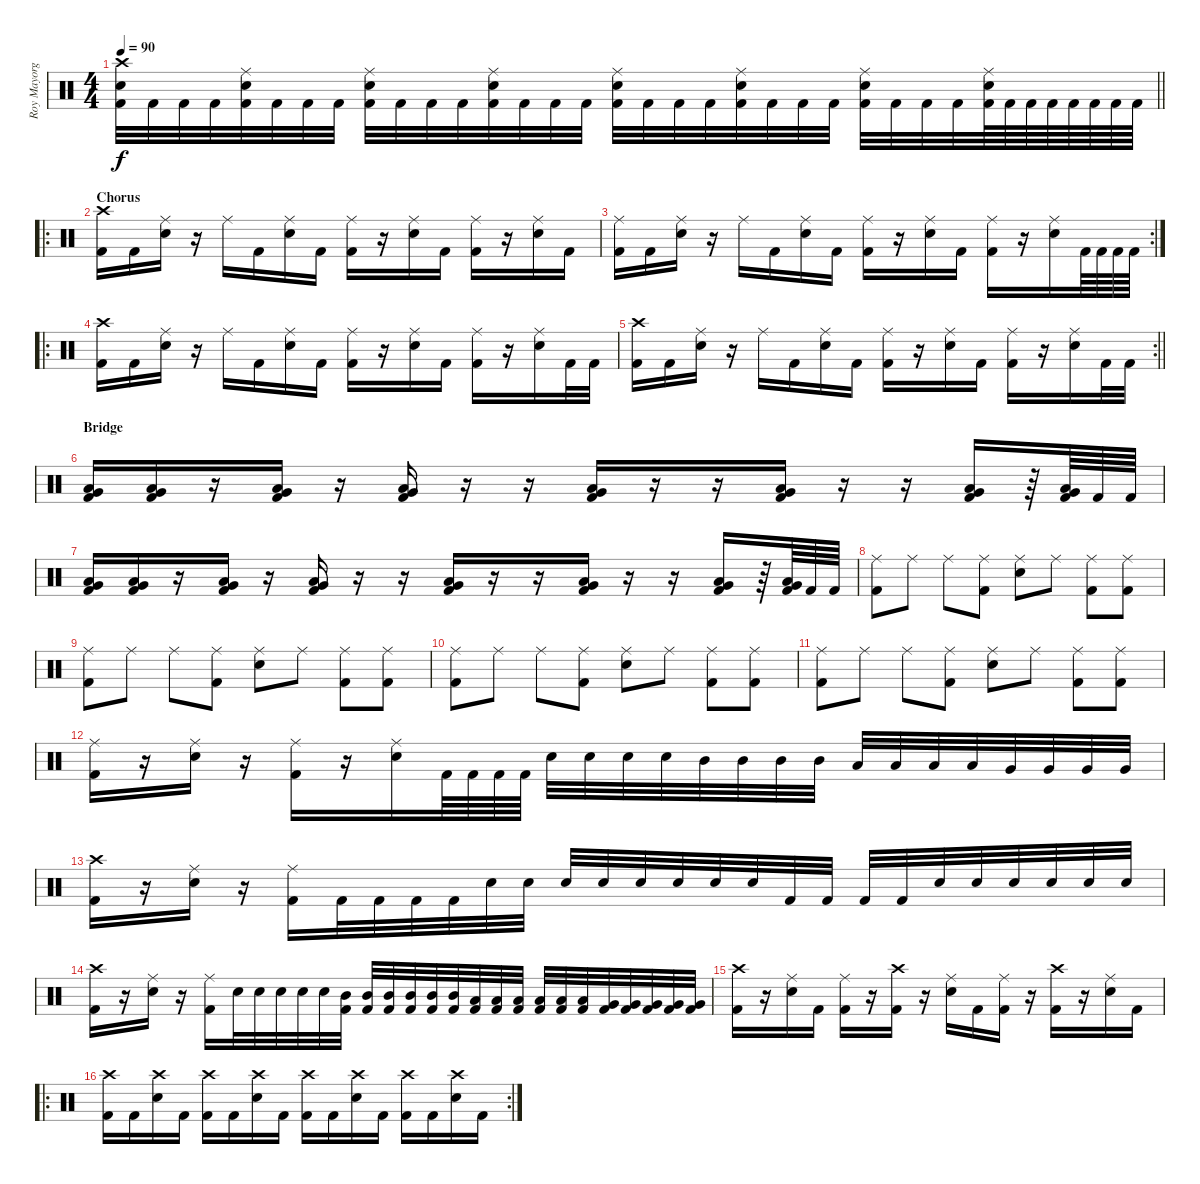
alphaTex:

\track ("Roy Mayorga" "Roy Mayorg") {instrument percussion}
\staff {score}
\articulation defaults
\ts (4 4)
\tempo 90
\clef neutral
\barLineRight lightlight
\ks c
("Kick (hit) 2" "Electric Snare (hit)" "Crash high (hit)").32{dy f} "Kick (hit) 2".32 "Kick (hit) 2".32 "Kick (hit) 2".32 ("Kick (hit) 2" "Electric Snare (hit)" "Ride (middle)").32 "Kick (hit) 2".32 "Kick (hit) 2".32 "Kick (hit) 2".32 ("Kick (hit) 2" "Electric Snare (hit)" "Ride (middle)").32 "Kick (hit) 2".32 "Kick (hit) 2".32 "Kick (hit) 2".32 ("Kick (hit) 2" "Electric Snare (hit)" "Ride (middle)").32 "Kick (hit) 2".32 "Kick (hit) 2".32 "Kick (hit) 2".32 ("Kick (hit) 2" "Electric Snare (hit)" "Ride (middle)").32 "Kick (hit) 2".32 "Kick (hit) 2".32 "Kick (hit) 2".32 ("Kick (hit) 2" "Electric Snare (hit)" "Ride (middle)").32 "Kick (hit) 2".32 "Kick (hit) 2".32 "Kick (hit) 2".32 ("Kick (hit) 2" "Electric Snare (hit)" "Ride (middle)").32 "Kick (hit) 2".32 "Kick (hit) 2".32 "Kick (hit) 2".32 ("Kick (hit) 2" "Electric Snare (hit)" "Ride (middle)").64 "Kick (hit) 2".64 "Kick (hit) 2".64 "Kick (hit) 2".64 "Kick (hit) 2".64 "Kick (hit) 2".64 "Kick (hit) 2".64 "Kick (hit) 2".64 |
\ro
\section ("" "Chorus")
("Kick (hit) 2" "Crash high (hit)").16 "Kick (hit) 2".16 ("Electric Snare (hit)" "Ride (middle)").16 r.16 "Ride (middle)".16 "Kick (hit) 2".16 ("Electric Snare (hit)" "Ride (middle)").16 "Kick (hit) 2".16 ("Kick (hit) 2" "Ride (middle)").16 r.16 ("Electric Snare (hit)" "Ride (middle)").16 "Kick (hit) 2".16 ("Kick (hit) 2" "Ride (middle)").16 r.16 ("Electric Snare (hit)" "Ride (middle)").16 "Kick (hit) 2".16 |
\rc 2
("Kick (hit) 2" "Ride (middle)").16 "Kick (hit) 2".16 ("Electric Snare (hit)" "Ride (middle)").16 r.16 "Ride (middle)".16 "Kick (hit) 2".16 ("Electric Snare (hit)" "Ride (middle)").16 "Kick (hit) 2".16 ("Kick (hit) 2" "Ride (middle)").16 r.16 ("Electric Snare (hit)" "Ride (middle)").16 "Kick (hit) 2".16 ("Kick (hit) 2" "Ride (middle)").16 r.16 ("Electric Snare (hit)" "Ride (middle)").16 "Kick (hit) 2".64 "Kick (hit) 2".64 "Kick (hit) 2".64 "Kick (hit) 2".64 |
\ro
("Kick (hit) 2" "Crash high (hit)").16 "Kick (hit) 2".16 ("Electric Snare (hit)" "Ride (middle)").16 r.16 "Ride (middle)".16 "Kick (hit) 2".16 ("Electric Snare (hit)" "Ride (middle)").16 "Kick (hit) 2".16 ("Kick (hit) 2" "Ride (middle)").16 r.16 ("Electric Snare (hit)" "Ride (middle)").16 "Kick (hit) 2".16 ("Kick (hit) 2" "Ride (middle)").16 r.16 ("Electric Snare (hit)" "Ride (middle)").16 "Kick (hit) 2".32 "Kick (hit) 2".32 |
\rc 2
\barLineRight lightlight
("Kick (hit) 2" "Crash high (hit)").16 "Kick (hit) 2".16 ("Electric Snare (hit)" "Ride (middle)").16 r.16 "Ride (middle)".16 "Kick (hit) 2".16 ("Electric Snare (hit)" "Ride (middle)").16 "Kick (hit) 2".16 ("Kick (hit) 2" "Ride (middle)").16 r.16 ("Electric Snare (hit)" "Ride (middle)").16 "Kick (hit) 2".16 ("Kick (hit) 2" "Ride (middle)").16 r.16 ("Electric Snare (hit)" "Ride (middle)").16 "Kick (hit) 2".32 "Kick (hit) 2".32 |
\section ("" "Bridge")
("Kick (hit) 2" "Low Tom (hit)" "Very Low Tom (hit)").16 ("Kick (hit) 2" "Low Tom (hit)" "Very Low Tom (hit)").16 r.16 ("Kick (hit) 2" "Low Tom (hit)" "Very Low Tom (hit)").16 r.16 ("Kick (hit) 2" "Low Tom (hit)" "Very Low Tom (hit)").16 r.16 r.16 ("Kick (hit) 2" "Low Tom (hit)" "Very Low Tom (hit)").16 r.16 r.16 ("Kick (hit) 2" "Low Tom (hit)" "Very Low Tom (hit)").16 r.16 r.16 ("Kick (hit) 2" "Low Tom (hit)" "Very Low Tom (hit)").16 r.64 ("Kick (hit) 2" "Low Tom (hit)" "Very Low Tom (hit)").64 "Kick (hit) 2".64 "Kick (hit) 2".64 |
("Kick (hit) 2" "Low Tom (hit)" "Very Low Tom (hit)").16 ("Kick (hit) 2" "Low Tom (hit)" "Very Low Tom (hit)").16 r.16 ("Kick (hit) 2" "Low Tom (hit)" "Very Low Tom (hit)").16 r.16 ("Kick (hit) 2" "Low Tom (hit)" "Very Low Tom (hit)").16 r.16 r.16 ("Kick (hit) 2" "Low Tom (hit)" "Very Low Tom (hit)").16 r.16 r.16 ("Kick (hit) 2" "Low Tom (hit)" "Very Low Tom (hit)").16 r.16 r.16 ("Kick (hit) 2" "Low Tom (hit)" "Very Low Tom (hit)").16 r.64 ("Kick (hit) 2" "Low Tom (hit)" "Very Low Tom (hit)").64 "Kick (hit) 2".64 "Kick (hit) 2".64 |
("Kick (hit) 2" "Ride (middle)").8 "Ride (middle)".8 "Ride (middle)".8 ("Kick (hit) 2" "Ride (middle)").8 ("Electric Snare (hit)" "Ride (middle)").8 "Ride (middle)".8 ("Kick (hit) 2" "Ride (middle)").8 ("Kick (hit) 2" "Ride (middle)").8 |
("Kick (hit) 2" "Ride (middle)").8 "Ride (middle)".8 "Ride (middle)".8 ("Kick (hit) 2" "Ride (middle)").8 ("Electric Snare (hit)" "Ride (middle)").8 "Ride (middle)".8 ("Kick (hit) 2" "Ride (middle)").8 ("Kick (hit) 2" "Ride (middle)").8 |
("Kick (hit) 2" "Ride (middle)").8 "Ride (middle)".8 "Ride (middle)".8 ("Kick (hit) 2" "Ride (middle)").8 ("Electric Snare (hit)" "Ride (middle)").8 "Ride (middle)".8 ("Kick (hit) 2" "Ride (middle)").8 ("Kick (hit) 2" "Ride (middle)").8 |
("Kick (hit) 2" "Ride (middle)").8 "Ride (middle)".8 "Ride (middle)".8 ("Kick (hit) 2" "Ride (middle)").8 ("Electric Snare (hit)" "Ride (middle)").8 "Ride (middle)".8 ("Kick (hit) 2" "Ride (middle)").8 ("Kick (hit) 2" "Ride (middle)").8 |
("Kick (hit) 2" "Ride (middle)").16 r.16 ("Electric Snare (hit)" "Ride (middle)").16 r.16 ("Kick (hit) 2" "Ride (middle)").16 r.16 ("Electric Snare (hit)" "Ride (middle)").16 "Kick (hit) 2".64 "Kick (hit) 2".64 "Kick (hit) 2".64 "Kick (hit) 2".64 "Electric Snare (hit)".32 "Electric Snare (hit)".32 "Electric Snare (hit)".32 "Electric Snare (hit)".32 "Mid Tom (hit)".32 "Mid Tom (hit)".32 "Mid Tom (hit)".32 "Mid Tom (hit)".32 "Low Tom (hit)".32 "Low Tom (hit)".32 "Low Tom (hit)".32 "Low Tom (hit)".32 "Very Low Tom (hit)".32 "Very Low Tom (hit)".32 "Very Low Tom (hit)".32 "Very Low Tom (hit)".32 |
("Kick (hit) 2" "Crash high (hit)").16 r.16 ("Electric Snare (hit)" "Ride (middle)").16 r.16 ("Kick (hit) 2" "Ride (middle)").16 "Kick (hit) 2".32 "Kick (hit) 2".32 "Kick (hit) 2".32 "Kick (hit) 2".32 "Electric Snare (hit)".32 "Electric Snare (hit)".32 "Electric Snare (hit)".32 "Electric Snare (hit)".32 "Electric Snare (hit)".32 "Electric Snare (hit)".32 "Electric Snare (hit)".32 "Electric Snare (hit)".32 "Kick (hit) 2".32 "Kick (hit) 2".32 "Kick (hit) 2".32 "Kick (hit) 2".32 "Electric Snare (hit)".32 "Electric Snare (hit)".32 "Electric Snare (hit)".32 "Electric Snare (hit)".32 "Electric Snare (hit)".32 "Electric Snare (hit)".32 |
("Kick (hit) 2" "Crash high (hit)").16 r.16 ("Electric Snare (hit)" "Ride (middle)").16 r.16 ("Kick (hit) 2" "Ride (middle)").16 "Electric Snare (hit)".32 "Electric Snare (hit)".32 "Electric Snare (hit)".32 "Electric Snare (hit)".32 "Electric Snare (hit)".32 ("Kick (hit) 2" "Mid Tom (hit)").32 ("Kick (hit) 2" "Mid Tom (hit)").32 ("Kick (hit) 2" "Mid Tom (hit)").32 ("Kick (hit) 2" "Mid Tom (hit)").32 ("Kick (hit) 2" "Mid Tom (hit)").32 ("Kick (hit) 2" "Mid Tom (hit)").32 ("Kick (hit) 2" "Low Tom (hit)").32 ("Kick (hit) 2" "Low Tom (hit)").32 ("Kick (hit) 2" "Low Tom (hit)").32 ("Kick (hit) 2" "Low Tom (hit)").32 ("Kick (hit) 2" "Low Tom (hit)").32 ("Kick (hit) 2" "Low Tom (hit)").32 ("Kick (hit) 2" "Very Low Tom (hit)").32 ("Kick (hit) 2" "Very Low Tom (hit)").32 ("Kick (hit) 2" "Very Low Tom (hit)").32 ("Kick (hit) 2" "Very Low Tom (hit)").32 ("Kick (hit) 2" "Very Low Tom (hit)").32 |
("Kick (hit) 2" "Crash high (hit)").16 r.16 ("Electric Snare (hit)" "Ride (middle)").16 "Kick (hit) 2".16 ("Kick (hit) 2" "Ride (middle)").16 r.16 ("Kick (hit) 2" "Crash high (hit)").16 r.16 ("Electric Snare (hit)" "Ride (middle)").16 "Kick (hit) 2".16 ("Kick (hit) 2" "Ride (middle)").16 r.16 ("Kick (hit) 2" "Crash high (hit)").16 r.16 ("Electric Snare (hit)" "Ride (middle)").16 "Kick (hit) 2".16 |
\ro
\rc 2
("Kick (hit) 2" "Crash high (hit)").16 "Kick (hit) 2".16 ("Electric Snare (hit)" "Crash high (hit)").16 "Kick (hit) 2".16 ("Kick (hit) 2" "Crash high (hit)").16 "Kick (hit) 2".16 ("Electric Snare (hit)" "Crash high (hit)").16 "Kick (hit) 2".16 ("Kick (hit) 2" "Crash high (hit)").16 "Kick (hit) 2".16 ("Electric Snare (hit)" "Crash high (hit)").16 "Kick (hit) 2".16 ("Kick (hit) 2" "Crash high (hit)").16 "Kick (hit) 2".16 ("Electric Snare (hit)" "Crash high (hit)").16 "Kick (hit) 2".16
